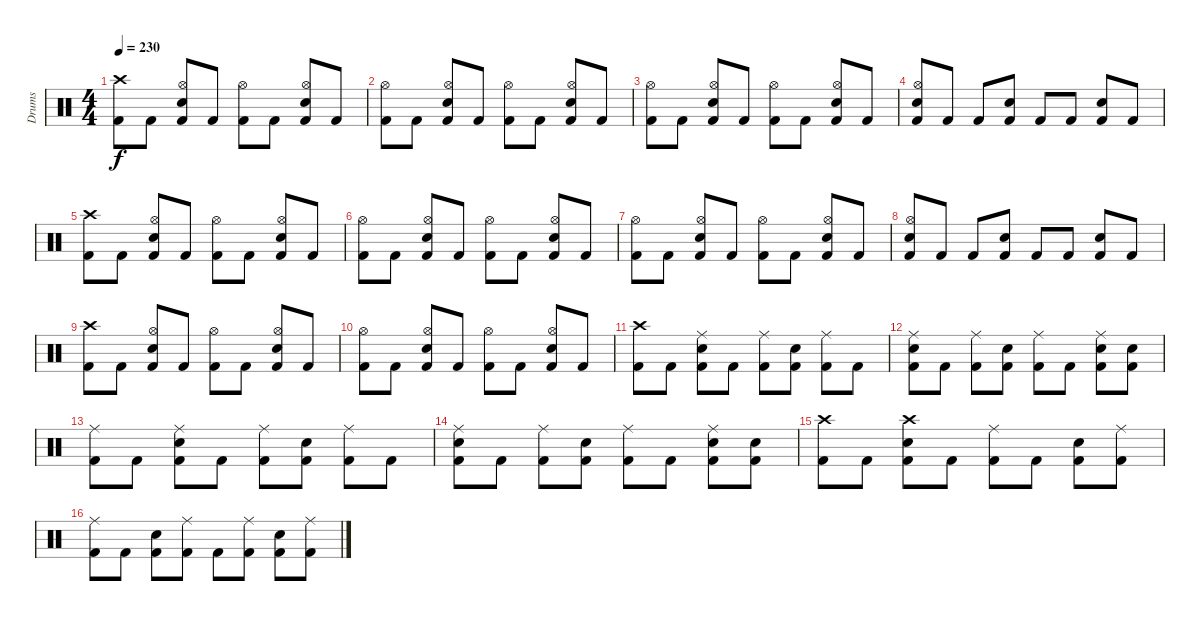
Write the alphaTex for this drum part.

\track ("Drums" "Drums") {instrument percussion}
\staff {score}
\articulation defaults
\ts (4 4)
\tempo 230
\clef neutral
\ks c
("Crash high (hit)" "Kick (hit) 2").8{dy f} "Kick (hit) 2".8 ("Hi-Hat (open)" "Electric Snare (hit)" "Kick (hit) 2").8 "Kick (hit) 2".8 ("Hi-Hat (open)" "Kick (hit) 2").8 "Kick (hit) 2".8 ("Hi-Hat (open)" "Electric Snare (hit)" "Kick (hit) 2").8 "Kick (hit) 2".8 |
("Hi-Hat (open)" "Kick (hit) 2").8 "Kick (hit) 2".8 ("Hi-Hat (open)" "Electric Snare (hit)" "Kick (hit) 2").8 "Kick (hit) 2".8 ("Hi-Hat (open)" "Kick (hit) 2").8 "Kick (hit) 2".8 ("Hi-Hat (open)" "Electric Snare (hit)" "Kick (hit) 2").8 "Kick (hit) 2".8 |
("Hi-Hat (open)" "Kick (hit) 2").8 "Kick (hit) 2".8 ("Hi-Hat (open)" "Electric Snare (hit)" "Kick (hit) 2").8 "Kick (hit) 2".8 ("Hi-Hat (open)" "Kick (hit) 2").8 "Kick (hit) 2".8 ("Hi-Hat (open)" "Electric Snare (hit)" "Kick (hit) 2").8 "Kick (hit) 2".8 |
("Hi-Hat (open)" "Electric Snare (hit)" "Kick (hit) 2").8 "Kick (hit) 2".8 "Kick (hit) 2".8 ("Electric Snare (hit)" "Kick (hit) 2").8 "Kick (hit) 2".8 "Kick (hit) 2".8 ("Electric Snare (hit)" "Kick (hit) 2").8 "Kick (hit) 2".8 |
("Crash high (hit)" "Kick (hit) 2").8 "Kick (hit) 2".8 ("Hi-Hat (open)" "Electric Snare (hit)" "Kick (hit) 2").8 "Kick (hit) 2".8 ("Hi-Hat (open)" "Kick (hit) 2").8 "Kick (hit) 2".8 ("Hi-Hat (open)" "Electric Snare (hit)" "Kick (hit) 2").8 "Kick (hit) 2".8 |
("Hi-Hat (open)" "Kick (hit) 2").8 "Kick (hit) 2".8 ("Hi-Hat (open)" "Electric Snare (hit)" "Kick (hit) 2").8 "Kick (hit) 2".8 ("Hi-Hat (open)" "Kick (hit) 2").8 "Kick (hit) 2".8 ("Hi-Hat (open)" "Electric Snare (hit)" "Kick (hit) 2").8 "Kick (hit) 2".8 |
("Hi-Hat (open)" "Kick (hit) 2").8 "Kick (hit) 2".8 ("Hi-Hat (open)" "Electric Snare (hit)" "Kick (hit) 2").8 "Kick (hit) 2".8 ("Hi-Hat (open)" "Kick (hit) 2").8 "Kick (hit) 2".8 ("Hi-Hat (open)" "Electric Snare (hit)" "Kick (hit) 2").8 "Kick (hit) 2".8 |
("Hi-Hat (open)" "Electric Snare (hit)" "Kick (hit) 2").8 "Kick (hit) 2".8 "Kick (hit) 2".8 ("Electric Snare (hit)" "Kick (hit) 2").8 "Kick (hit) 2".8 "Kick (hit) 2".8 ("Electric Snare (hit)" "Kick (hit) 2").8 "Kick (hit) 2".8 |
("Crash high (hit)" "Kick (hit) 2").8 "Kick (hit) 2".8 ("Hi-Hat (open)" "Electric Snare (hit)" "Kick (hit) 2").8 "Kick (hit) 2".8 ("Hi-Hat (open)" "Kick (hit) 2").8 "Kick (hit) 2".8 ("Hi-Hat (open)" "Electric Snare (hit)" "Kick (hit) 2").8 "Kick (hit) 2".8 |
("Hi-Hat (open)" "Kick (hit) 2").8 "Kick (hit) 2".8 ("Hi-Hat (open)" "Electric Snare (hit)" "Kick (hit) 2").8 "Kick (hit) 2".8 ("Hi-Hat (open)" "Kick (hit) 2").8 "Kick (hit) 2".8 ("Hi-Hat (open)" "Electric Snare (hit)" "Kick (hit) 2").8 "Kick (hit) 2".8 |
("Crash high (hit)" "Kick (hit) 2").8 "Kick (hit) 2".8 ("Ride (middle)" "Electric Snare (hit)" "Kick (hit) 2").8 "Kick (hit) 2".8 ("Ride (middle)" "Kick (hit) 2").8 ("Electric Snare (hit)" "Kick (hit) 2").8 ("Ride (middle)" "Kick (hit) 2").8 "Kick (hit) 2".8 |
("Ride (middle)" "Electric Snare (hit)" "Kick (hit) 2").8 "Kick (hit) 2".8 ("Ride (middle)" "Kick (hit) 2").8 ("Electric Snare (hit)" "Kick (hit) 2").8 ("Ride (middle)" "Kick (hit) 2").8 "Kick (hit) 2".8 ("Ride (middle)" "Electric Snare (hit)" "Kick (hit) 2").8 ("Electric Snare (hit)" "Kick (hit) 2").8 |
("Ride (middle)" "Kick (hit) 2").8 "Kick (hit) 2".8 ("Ride (middle)" "Electric Snare (hit)" "Kick (hit) 2").8 "Kick (hit) 2".8 ("Ride (middle)" "Kick (hit) 2").8 ("Electric Snare (hit)" "Kick (hit) 2").8 ("Ride (middle)" "Kick (hit) 2").8 "Kick (hit) 2".8 |
("Ride (middle)" "Electric Snare (hit)" "Kick (hit) 2").8 "Kick (hit) 2".8 ("Ride (middle)" "Kick (hit) 2").8 ("Electric Snare (hit)" "Kick (hit) 2").8 ("Ride (middle)" "Kick (hit) 2").8 "Kick (hit) 2".8 ("Ride (middle)" "Electric Snare (hit)" "Kick (hit) 2").8 ("Electric Snare (hit)" "Kick (hit) 2").8 |
("Crash high (hit)" "Kick (hit) 2").8 "Kick (hit) 2".8 ("Crash high (hit)" "Electric Snare (hit)" "Kick (hit) 2").8 "Kick (hit) 2".8 ("Ride (middle)" "Kick (hit) 2").8 "Kick (hit) 2".8 ("Electric Snare (hit)" "Kick (hit) 2").8 ("Ride (middle)" "Kick (hit) 2").8 |
("Ride (middle)" "Kick (hit) 2").8 "Kick (hit) 2".8 ("Electric Snare (hit)" "Kick (hit) 2").8 ("Ride (middle)" "Kick (hit) 2").8 "Kick (hit) 2".8 ("Ride (middle)" "Kick (hit) 2").8 ("Electric Snare (hit)" "Kick (hit) 2").8 ("Ride (middle)" "Kick (hit) 2").8
